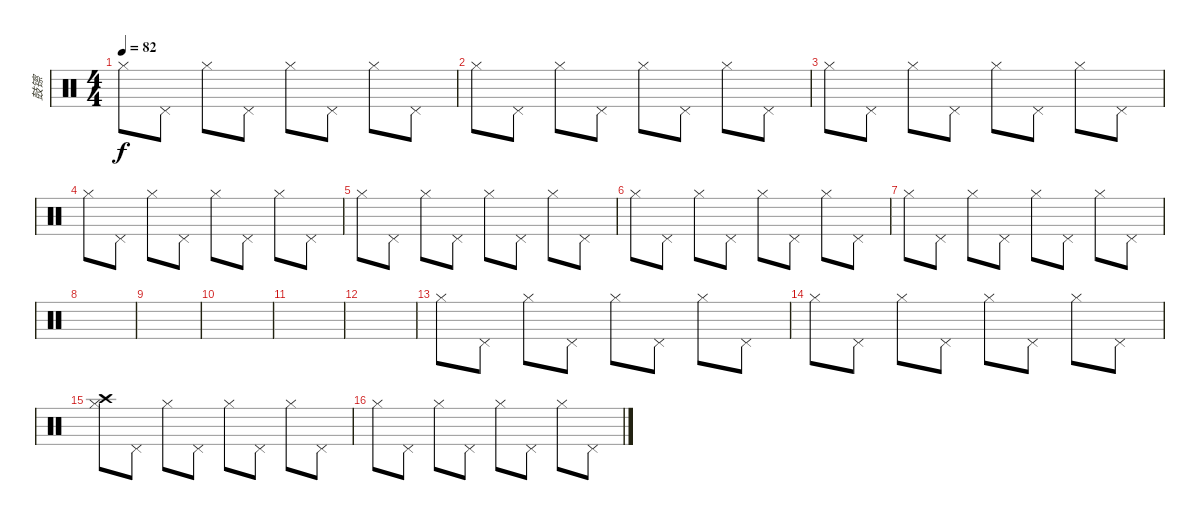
\track ("鼓镲" "鼓镲") {instrument percussion}
\staff {score}
\articulation defaults
\ts (4 4)
\tempo 82
\clef neutral
\ks c "Hi-Hat (closed)".8{dy f} "Pedal Hi-Hat (hit)".8 "Hi-Hat (closed)".8 "Pedal Hi-Hat (hit)".8 "Hi-Hat (closed)".8 "Pedal Hi-Hat (hit)".8 "Hi-Hat (closed)".8 "Pedal Hi-Hat (hit)".8
|
"Hi-Hat (closed)".8 "Pedal Hi-Hat (hit)".8 "Hi-Hat (closed)".8 "Pedal Hi-Hat (hit)".8 "Hi-Hat (closed)".8 "Pedal Hi-Hat (hit)".8 "Hi-Hat (closed)".8 "Pedal Hi-Hat (hit)".8 |
"Hi-Hat (closed)".8 "Pedal Hi-Hat (hit)".8 "Hi-Hat (closed)".8 "Pedal Hi-Hat (hit)".8 "Hi-Hat (closed)".8 "Pedal Hi-Hat (hit)".8 "Hi-Hat (closed)".8 "Pedal Hi-Hat (hit)".8 |
"Hi-Hat (closed)".8 "Pedal Hi-Hat (hit)".8 "Hi-Hat (closed)".8 "Pedal Hi-Hat (hit)".8 "Hi-Hat (closed)".8 "Pedal Hi-Hat (hit)".8 "Hi-Hat (closed)".8 "Pedal Hi-Hat (hit)".8 |
"Hi-Hat (closed)".8 "Pedal Hi-Hat (hit)".8 "Hi-Hat (closed)".8 "Pedal Hi-Hat (hit)".8 "Hi-Hat (closed)".8 "Pedal Hi-Hat (hit)".8 "Hi-Hat (closed)".8 "Pedal Hi-Hat (hit)".8 |
"Hi-Hat (closed)".8 "Pedal Hi-Hat (hit)".8 "Hi-Hat (closed)".8 "Pedal Hi-Hat (hit)".8 "Hi-Hat (closed)".8 "Pedal Hi-Hat (hit)".8 "Hi-Hat (closed)".8 "Pedal Hi-Hat (hit)".8 |
"Hi-Hat (closed)".8 "Pedal Hi-Hat (hit)".8 "Hi-Hat (closed)".8 "Pedal Hi-Hat (hit)".8 "Hi-Hat (closed)".8 "Pedal Hi-Hat (hit)".8 "Hi-Hat (closed)".8 "Pedal Hi-Hat (hit)".8 |
|
|
|
|
|
"Hi-Hat (closed)".8 "Pedal Hi-Hat (hit)".8 "Hi-Hat (closed)".8 "Pedal Hi-Hat (hit)".8 "Hi-Hat (closed)".8 "Pedal Hi-Hat (hit)".8 "Hi-Hat (closed)".8 "Pedal Hi-Hat (hit)".8 |
"Hi-Hat (closed)".8 "Pedal Hi-Hat (hit)".8 "Hi-Hat (closed)".8 "Pedal Hi-Hat (hit)".8 "Hi-Hat (closed)".8 "Pedal Hi-Hat (hit)".8 "Hi-Hat (closed)".8 "Pedal Hi-Hat (hit)".8 |
("Hi-Hat (closed)" "Crash high (hit)").8 "Pedal Hi-Hat (hit)".8 "Hi-Hat (closed)".8 "Pedal Hi-Hat (hit)".8 "Hi-Hat (closed)".8 "Pedal Hi-Hat (hit)".8 "Hi-Hat (closed)".8 "Pedal Hi-Hat (hit)".8 |
"Hi-Hat (closed)".8 "Pedal Hi-Hat (hit)".8 "Hi-Hat (closed)".8 "Pedal Hi-Hat (hit)".8 "Hi-Hat (closed)".8 "Pedal Hi-Hat (hit)".8 "Hi-Hat (closed)".8 "Pedal Hi-Hat (hit)".8
